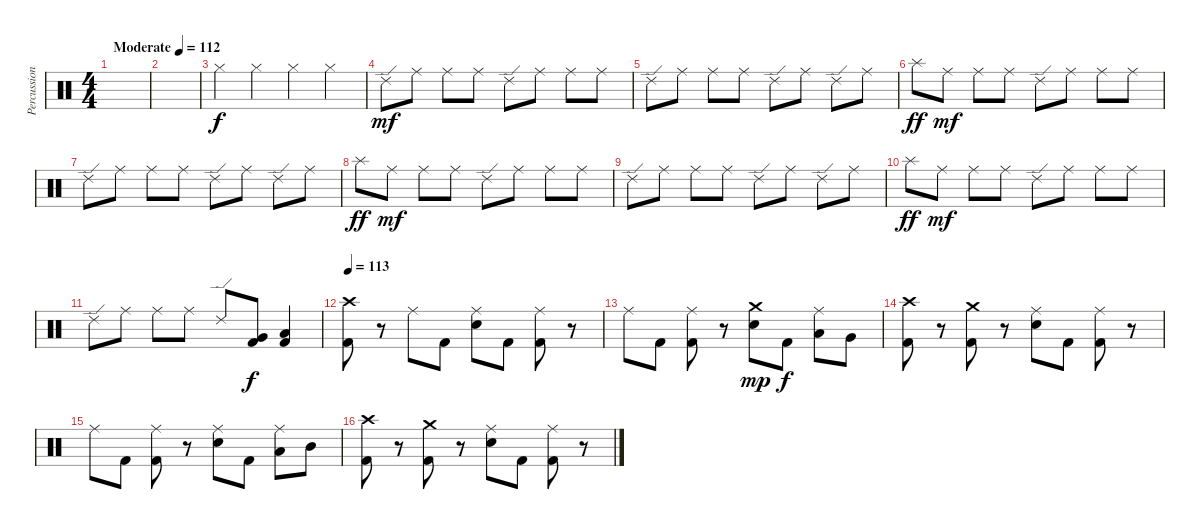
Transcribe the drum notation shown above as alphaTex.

\track ("Percussion" "Percussion") {instrument percussion}
\staff {score}
\articulation defaults
\ts (4 4)
\tempo (112 "Moderate")
\clef neutral
\ks c
|
|
"Hi-Hat (closed)".4 "Hi-Hat (closed)".4 "Hi-Hat (closed)".4 "Hi-Hat (closed)".4 |
"Ride (edge) 2".8{dy mf} "Ride (middle)".8 "Ride (middle)".8 "Ride (middle)".8 "Ride (edge) 2".8 "Ride (middle)".8 "Ride (middle)".8 "Ride (middle)".8 |
"Ride (edge) 2".8 "Ride (middle)".8 "Ride (middle)".8 "Ride (middle)".8 "Ride (edge) 2".8 "Ride (middle)".8 "Ride (edge) 2".8 "Ride (middle)".8 |
"Splash (hit)".8{dy ff} "Ride (middle)".8{dy mf} "Ride (middle)".8 "Ride (middle)".8 "Ride (edge) 2".8 "Ride (middle)".8 "Ride (middle)".8 "Ride (middle)".8 |
"Ride (edge) 2".8 "Ride (middle)".8 "Ride (middle)".8 "Ride (middle)".8 "Ride (edge) 2".8 "Ride (middle)".8 "Ride (edge) 2".8 "Ride (middle)".8 |
"Splash (hit)".8{dy ff} "Ride (middle)".8{dy mf} "Ride (middle)".8 "Ride (middle)".8 "Ride (edge) 2".8 "Ride (middle)".8 "Ride (middle)".8 "Ride (middle)".8 |
"Ride (edge) 2".8 "Ride (middle)".8 "Ride (middle)".8 "Ride (middle)".8 "Ride (edge) 2".8 "Ride (middle)".8 "Ride (edge) 2".8 "Ride (middle)".8 |
"Splash (hit)".8{dy ff} "Ride (middle)".8{dy mf} "Ride (middle)".8 "Ride (middle)".8 "Ride (edge) 2".8 "Ride (middle)".8 "Ride (middle)".8 "Ride (middle)".8 |
"Ride (edge) 2".8 "Ride (middle)".8 "Ride (middle)".8 "Ride (middle)".8 "Ride (edge) 2".8 ("Very Low Tom (hit)" "Kick (hit) 2").8{dy f} ("Low Floor Tom (hit)" "Kick (hit) 2").4 |
\tempo 113
("Crash high (hit)" "Kick (hit) 2").8 r.8 "Ride (middle)".8 "Kick (hit) 2".8 ("Ride (middle)" "Snare (hit) 2").8 "Kick (hit) 2".8 ("Ride (middle)" "Kick (hit) 2").8 r.8 |
"Ride (middle)".8 "Kick (hit) 2".8 ("Ride (middle)" "Kick (hit) 2").8 r.8 ("Crash medium (hit)" "Snare (hit) 2").8{dy mp} "Kick (hit) 2".8{dy f} ("Ride (middle)" "Low Tom (hit)").8 "Very Low Tom (hit)".8 |
("Crash high (hit)" "Kick (hit) 2").8 r.8 ("Crash medium (hit)" "Kick (hit) 2").8 r.8 ("Ride (middle)" "Snare (hit) 2").8 "Kick (hit) 2".8 ("Ride (middle)" "Kick (hit) 2").8 r.8 |
"Ride (middle)".8 "Kick (hit) 2".8 ("Ride (middle)" "Kick (hit) 2").8 r.8 ("Ride (middle)" "Snare (hit) 2").8 "Kick (hit) 2".8 ("Ride (middle)" "Low Tom (hit)").8 "Mid Tom (hit)".8 |
("Crash high (hit)" "Kick (hit) 2").8 r.8 ("Crash medium (hit)" "Kick (hit) 2").8 r.8 ("Ride (middle)" "Snare (hit) 2").8 "Kick (hit) 2".8 ("Ride (middle)" "Kick (hit) 2").8 r.8
